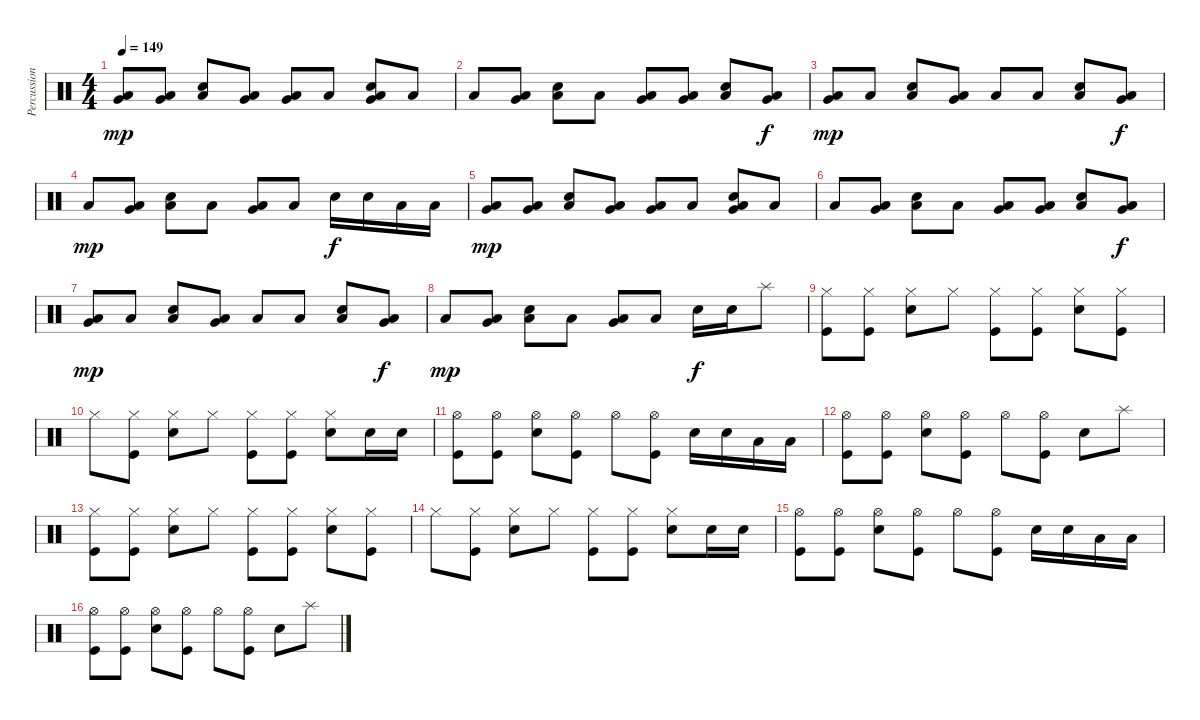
\track ("Percussion" "Percussion") {instrument percussion}
\staff {score}
\articulation defaults
\ts (4 4)
\tempo 149
\clef neutral
\ks c
("Very Low Tom (hit)" "Low Tom (hit)").8{dy mp} ("Very Low Tom (hit)" "Low Tom (hit)").8 ("Snare (hit) 2" "Low Tom (hit)").8 ("Very Low Tom (hit)" "Low Tom (hit)").8 ("Very Low Tom (hit)" "Low Tom (hit)").8 "Low Tom (hit)".8 ("Snare (hit) 2" "Very Low Tom (hit)" "Low Tom (hit)").8 "Low Tom (hit)".8 |
"Low Tom (hit)".8 ("Very Low Tom (hit)" "Low Tom (hit)").8 ("Snare (hit) 2" "Low Tom (hit)").8 "Low Tom (hit)".8 ("Very Low Tom (hit)" "Low Tom (hit)").8 ("Very Low Tom (hit)" "Low Tom (hit)").8 ("Snare (hit) 2" "Low Tom (hit)").8 ("Very Low Tom (hit)" "Low Tom (hit)").8{dy f} |
("Very Low Tom (hit)" "Low Tom (hit)").8{dy mp} "Low Tom (hit)".8 ("Snare (hit) 2" "Low Tom (hit)").8 ("Very Low Tom (hit)" "Low Tom (hit)").8 "Low Tom (hit)".8 "Low Tom (hit)".8 ("Snare (hit) 2" "Low Tom (hit)").8 ("Very Low Tom (hit)" "Low Tom (hit)").8{dy f} |
"Low Tom (hit)".8{dy mp} ("Very Low Tom (hit)" "Low Tom (hit)").8 ("Snare (hit) 2" "Low Tom (hit)").8 "Low Tom (hit)".8 ("Very Low Tom (hit)" "Low Tom (hit)").8 "Low Tom (hit)".8 "Snare (hit) 2".16{dy f} "Snare (hit) 2".16 "Low Tom (hit)".16 "Low Tom (hit)".16 |
("Very Low Tom (hit)" "Low Tom (hit)").8{dy mp} ("Very Low Tom (hit)" "Low Tom (hit)").8 ("Snare (hit) 2" "Low Tom (hit)").8 ("Very Low Tom (hit)" "Low Tom (hit)").8 ("Very Low Tom (hit)" "Low Tom (hit)").8 "Low Tom (hit)".8 ("Snare (hit) 2" "Very Low Tom (hit)" "Low Tom (hit)").8 "Low Tom (hit)".8 |
"Low Tom (hit)".8 ("Very Low Tom (hit)" "Low Tom (hit)").8 ("Snare (hit) 2" "Low Tom (hit)").8 "Low Tom (hit)".8 ("Very Low Tom (hit)" "Low Tom (hit)").8 ("Very Low Tom (hit)" "Low Tom (hit)").8 ("Snare (hit) 2" "Low Tom (hit)").8 ("Very Low Tom (hit)" "Low Tom (hit)").8{dy f} |
("Very Low Tom (hit)" "Low Tom (hit)").8{dy mp} "Low Tom (hit)".8 ("Snare (hit) 2" "Low Tom (hit)").8 ("Very Low Tom (hit)" "Low Tom (hit)").8 "Low Tom (hit)".8 "Low Tom (hit)".8 ("Snare (hit) 2" "Low Tom (hit)").8 ("Very Low Tom (hit)" "Low Tom (hit)").8{dy f} |
"Low Tom (hit)".8{dy mp} ("Very Low Tom (hit)" "Low Tom (hit)").8 ("Snare (hit) 2" "Low Tom (hit)").8 "Low Tom (hit)".8 ("Very Low Tom (hit)" "Low Tom (hit)").8 "Low Tom (hit)".8 "Snare (hit) 2".16{dy f} "Snare (hit) 2".16 "Splash (hit)".8 |
("Hi-Hat (closed)" "Kick (hit)").8 ("Hi-Hat (closed)" "Kick (hit)").8 ("Hi-Hat (closed)" "Snare (hit) 2").8 "Hi-Hat (closed)".8 ("Hi-Hat (closed)" "Kick (hit)").8 ("Hi-Hat (closed)" "Kick (hit)").8 ("Hi-Hat (closed)" "Snare (hit) 2").8 ("Hi-Hat (closed)" "Kick (hit)").8 |
"Hi-Hat (closed)".8 ("Hi-Hat (closed)" "Kick (hit)").8 ("Hi-Hat (closed)" "Snare (hit) 2").8 "Hi-Hat (closed)".8 ("Hi-Hat (closed)" "Kick (hit)").8 ("Hi-Hat (closed)" "Kick (hit)").8 ("Hi-Hat (closed)" "Snare (hit) 2").8 "Snare (hit) 2".16 "Snare (hit) 2".16 |
("Hi-Hat (open)" "Kick (hit)").8 ("Hi-Hat (open)" "Kick (hit)").8 ("Hi-Hat (open)" "Snare (hit) 2").8 ("Hi-Hat (open)" "Kick (hit)").8 "Hi-Hat (open)".8 ("Hi-Hat (open)" "Kick (hit)").8 "Snare (hit) 2".16 "Snare (hit) 2".16 "Low Tom (hit)".16 "Low Tom (hit)".16 |
("Hi-Hat (open)" "Kick (hit)").8 ("Hi-Hat (open)" "Kick (hit)").8 ("Hi-Hat (open)" "Snare (hit) 2").8 ("Hi-Hat (open)" "Kick (hit)").8 "Hi-Hat (open)".8 ("Hi-Hat (open)" "Kick (hit)").8 "Snare (hit) 2".8 "Splash (hit)".8 |
("Hi-Hat (closed)" "Kick (hit)").8 ("Hi-Hat (closed)" "Kick (hit)").8 ("Hi-Hat (closed)" "Snare (hit) 2").8 "Hi-Hat (closed)".8 ("Hi-Hat (closed)" "Kick (hit)").8 ("Hi-Hat (closed)" "Kick (hit)").8 ("Hi-Hat (closed)" "Snare (hit) 2").8 ("Hi-Hat (closed)" "Kick (hit)").8 |
"Hi-Hat (closed)".8 ("Hi-Hat (closed)" "Kick (hit)").8 ("Hi-Hat (closed)" "Snare (hit) 2").8 "Hi-Hat (closed)".8 ("Hi-Hat (closed)" "Kick (hit)").8 ("Hi-Hat (closed)" "Kick (hit)").8 ("Hi-Hat (closed)" "Snare (hit) 2").8 "Snare (hit) 2".16 "Snare (hit) 2".16 |
("Hi-Hat (open)" "Kick (hit)").8 ("Hi-Hat (open)" "Kick (hit)").8 ("Hi-Hat (open)" "Snare (hit) 2").8 ("Hi-Hat (open)" "Kick (hit)").8 "Hi-Hat (open)".8 ("Hi-Hat (open)" "Kick (hit)").8 "Snare (hit) 2".16 "Snare (hit) 2".16 "Low Tom (hit)".16 "Low Tom (hit)".16 |
("Hi-Hat (open)" "Kick (hit)").8 ("Hi-Hat (open)" "Kick (hit)").8 ("Hi-Hat (open)" "Snare (hit) 2").8 ("Hi-Hat (open)" "Kick (hit)").8 "Hi-Hat (open)".8 ("Hi-Hat (open)" "Kick (hit)").8 "Snare (hit) 2".8 "Splash (hit)".8
